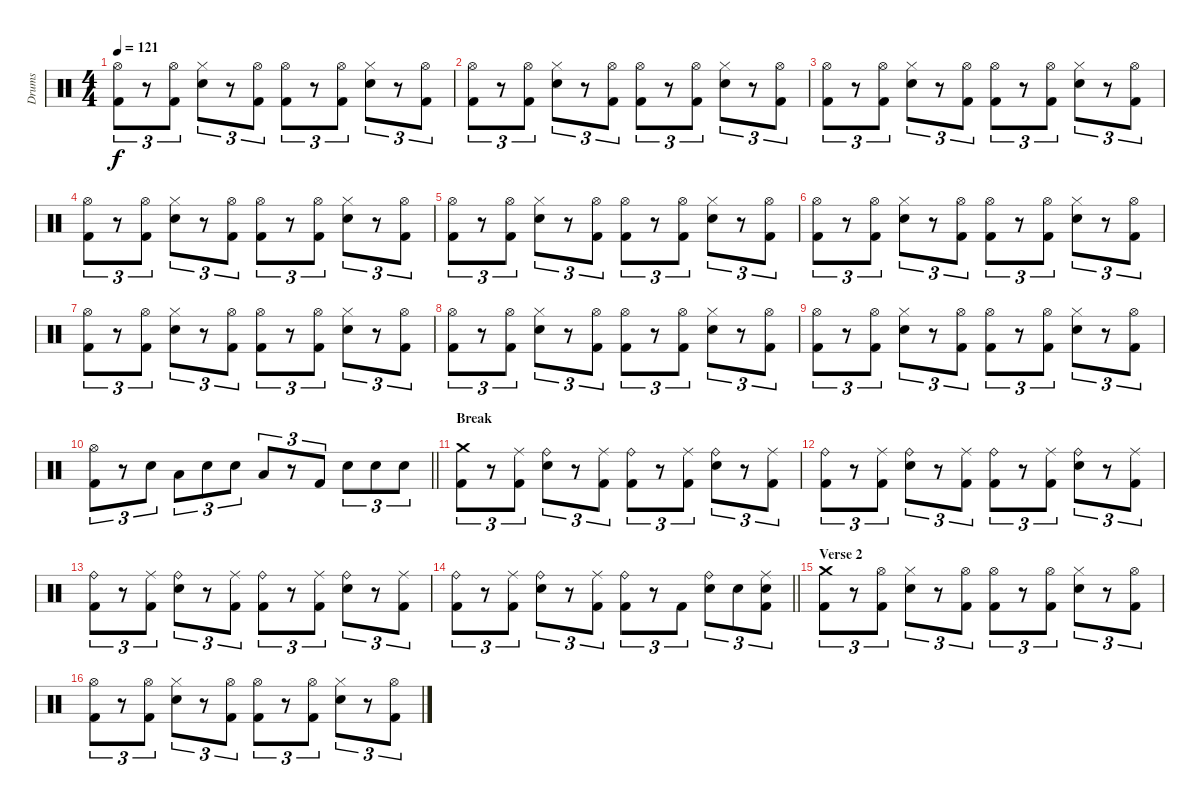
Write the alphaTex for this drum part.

\track ("Drums" "Drums") {instrument percussion}
\staff {score}
\articulation defaults
\ts (4 4)
\tempo 121
\clef neutral
\ks c
("Hi-Hat (open)" "Kick (hit) 2").8{tu (3 2) dy f} r.8{tu (3 2)} ("Hi-Hat (open)" "Kick (hit) 2").8{tu (3 2)} ("Hi-Hat (closed)" "Snare (hit) 2").8{tu (3 2)} r.8{tu (3 2)} ("Hi-Hat (open)" "Kick (hit) 2").8{tu (3 2)} ("Hi-Hat (open)" "Kick (hit) 2").8{tu (3 2)} r.8{tu (3 2)} ("Hi-Hat (open)" "Kick (hit) 2").8{tu (3 2)} ("Hi-Hat (closed)" "Snare (hit) 2").8{tu (3 2)} r.8{tu (3 2)} ("Hi-Hat (open)" "Kick (hit) 2").8{tu (3 2)} |
("Hi-Hat (open)" "Kick (hit) 2").8{tu (3 2)} r.8{tu (3 2)} ("Hi-Hat (open)" "Kick (hit) 2").8{tu (3 2)} ("Hi-Hat (closed)" "Snare (hit) 2").8{tu (3 2)} r.8{tu (3 2)} ("Hi-Hat (open)" "Kick (hit) 2").8{tu (3 2)} ("Hi-Hat (open)" "Kick (hit) 2").8{tu (3 2)} r.8{tu (3 2)} ("Hi-Hat (open)" "Kick (hit) 2").8{tu (3 2)} ("Hi-Hat (closed)" "Snare (hit) 2").8{tu (3 2)} r.8{tu (3 2)} ("Hi-Hat (open)" "Kick (hit) 2").8{tu (3 2)} |
("Hi-Hat (open)" "Kick (hit) 2").8{tu (3 2)} r.8{tu (3 2)} ("Hi-Hat (open)" "Kick (hit) 2").8{tu (3 2)} ("Hi-Hat (closed)" "Snare (hit) 2").8{tu (3 2)} r.8{tu (3 2)} ("Hi-Hat (open)" "Kick (hit) 2").8{tu (3 2)} ("Hi-Hat (open)" "Kick (hit) 2").8{tu (3 2)} r.8{tu (3 2)} ("Hi-Hat (open)" "Kick (hit) 2").8{tu (3 2)} ("Hi-Hat (closed)" "Snare (hit) 2").8{tu (3 2)} r.8{tu (3 2)} ("Hi-Hat (open)" "Kick (hit) 2").8{tu (3 2)} |
("Hi-Hat (open)" "Kick (hit) 2").8{tu (3 2)} r.8{tu (3 2)} ("Hi-Hat (open)" "Kick (hit) 2").8{tu (3 2)} ("Hi-Hat (closed)" "Snare (hit) 2").8{tu (3 2)} r.8{tu (3 2)} ("Hi-Hat (open)" "Kick (hit) 2").8{tu (3 2)} ("Hi-Hat (open)" "Kick (hit) 2").8{tu (3 2)} r.8{tu (3 2)} ("Hi-Hat (open)" "Kick (hit) 2").8{tu (3 2)} ("Hi-Hat (closed)" "Snare (hit) 2").8{tu (3 2)} r.8{tu (3 2)} ("Hi-Hat (open)" "Kick (hit) 2").8{tu (3 2)} |
("Hi-Hat (open)" "Kick (hit) 2").8{tu (3 2)} r.8{tu (3 2)} ("Hi-Hat (open)" "Kick (hit) 2").8{tu (3 2)} ("Hi-Hat (closed)" "Snare (hit) 2").8{tu (3 2)} r.8{tu (3 2)} ("Hi-Hat (open)" "Kick (hit) 2").8{tu (3 2)} ("Hi-Hat (open)" "Kick (hit) 2").8{tu (3 2)} r.8{tu (3 2)} ("Hi-Hat (open)" "Kick (hit) 2").8{tu (3 2)} ("Hi-Hat (closed)" "Snare (hit) 2").8{tu (3 2)} r.8{tu (3 2)} ("Hi-Hat (open)" "Kick (hit) 2").8{tu (3 2)} |
("Hi-Hat (open)" "Kick (hit) 2").8{tu (3 2)} r.8{tu (3 2)} ("Hi-Hat (open)" "Kick (hit) 2").8{tu (3 2)} ("Hi-Hat (closed)" "Snare (hit) 2").8{tu (3 2)} r.8{tu (3 2)} ("Hi-Hat (open)" "Kick (hit) 2").8{tu (3 2)} ("Hi-Hat (open)" "Kick (hit) 2").8{tu (3 2)} r.8{tu (3 2)} ("Hi-Hat (open)" "Kick (hit) 2").8{tu (3 2)} ("Hi-Hat (closed)" "Snare (hit) 2").8{tu (3 2)} r.8{tu (3 2)} ("Hi-Hat (open)" "Kick (hit) 2").8{tu (3 2)} |
("Hi-Hat (open)" "Kick (hit) 2").8{tu (3 2)} r.8{tu (3 2)} ("Hi-Hat (open)" "Kick (hit) 2").8{tu (3 2)} ("Hi-Hat (closed)" "Snare (hit) 2").8{tu (3 2)} r.8{tu (3 2)} ("Hi-Hat (open)" "Kick (hit) 2").8{tu (3 2)} ("Hi-Hat (open)" "Kick (hit) 2").8{tu (3 2)} r.8{tu (3 2)} ("Hi-Hat (open)" "Kick (hit) 2").8{tu (3 2)} ("Hi-Hat (closed)" "Snare (hit) 2").8{tu (3 2)} r.8{tu (3 2)} ("Hi-Hat (open)" "Kick (hit) 2").8{tu (3 2)} |
("Hi-Hat (open)" "Kick (hit) 2").8{tu (3 2)} r.8{tu (3 2)} ("Hi-Hat (open)" "Kick (hit) 2").8{tu (3 2)} ("Hi-Hat (closed)" "Snare (hit) 2").8{tu (3 2)} r.8{tu (3 2)} ("Hi-Hat (open)" "Kick (hit) 2").8{tu (3 2)} ("Hi-Hat (open)" "Kick (hit) 2").8{tu (3 2)} r.8{tu (3 2)} ("Hi-Hat (open)" "Kick (hit) 2").8{tu (3 2)} ("Hi-Hat (closed)" "Snare (hit) 2").8{tu (3 2)} r.8{tu (3 2)} ("Hi-Hat (open)" "Kick (hit) 2").8{tu (3 2)} |
("Hi-Hat (open)" "Kick (hit) 2").8{tu (3 2)} r.8{tu (3 2)} ("Hi-Hat (open)" "Kick (hit) 2").8{tu (3 2)} ("Hi-Hat (closed)" "Snare (hit) 2").8{tu (3 2)} r.8{tu (3 2)} ("Hi-Hat (open)" "Kick (hit) 2").8{tu (3 2)} ("Hi-Hat (open)" "Kick (hit) 2").8{tu (3 2)} r.8{tu (3 2)} ("Hi-Hat (open)" "Kick (hit) 2").8{tu (3 2)} ("Hi-Hat (closed)" "Snare (hit) 2").8{tu (3 2)} r.8{tu (3 2)} ("Hi-Hat (open)" "Kick (hit) 2").8{tu (3 2)} |
\barLineRight lightlight
("Hi-Hat (open)" "Kick (hit) 2").8{tu (3 2)} r.8{tu (3 2)} "Snare (hit) 2".8{tu (3 2)} "Low Tom (hit)".8{tu (3 2)} "Snare (hit) 2".8{tu (3 2)} "Snare (hit) 2".8{tu (3 2)} "Low Floor Tom (hit)".8{tu (3 2)} r.8{tu (3 2)} "Kick (hit) 2".8{tu (3 2)} "Snare (hit) 2".8{tu (3 2)} "Snare (hit) 2".8{tu (3 2)} "Snare (hit) 2".8{tu (3 2)} |
\section ("" "Break")
("Crash medium (hit)" "Kick (hit) 2").8{tu (3 2)} r.8{tu (3 2)} ("Ride (middle)" "Kick (hit) 2").8{tu (3 2)} ("Ride (bell)" "Snare (hit) 2").8{tu (3 2)} r.8{tu (3 2)} ("Ride (middle)" "Kick (hit) 2").8{tu (3 2)} ("Ride (bell)" "Kick (hit) 2").8{tu (3 2)} r.8{tu (3 2)} ("Ride (middle)" "Kick (hit) 2").8{tu (3 2)} ("Ride (bell)" "Snare (hit) 2").8{tu (3 2)} r.8{tu (3 2)} ("Ride (middle)" "Kick (hit) 2").8{tu (3 2)} |
("Ride (bell)" "Kick (hit) 2").8{tu (3 2)} r.8{tu (3 2)} ("Ride (middle)" "Kick (hit) 2").8{tu (3 2)} ("Ride (bell)" "Snare (hit) 2").8{tu (3 2)} r.8{tu (3 2)} ("Ride (middle)" "Kick (hit) 2").8{tu (3 2)} ("Ride (bell)" "Kick (hit) 2").8{tu (3 2)} r.8{tu (3 2)} ("Ride (middle)" "Kick (hit) 2").8{tu (3 2)} ("Ride (bell)" "Snare (hit) 2").8{tu (3 2)} r.8{tu (3 2)} ("Ride (middle)" "Kick (hit) 2").8{tu (3 2)} |
("Ride (bell)" "Kick (hit) 2").8{tu (3 2)} r.8{tu (3 2)} ("Ride (middle)" "Kick (hit) 2").8{tu (3 2)} ("Ride (bell)" "Snare (hit) 2").8{tu (3 2)} r.8{tu (3 2)} ("Ride (middle)" "Kick (hit) 2").8{tu (3 2)} ("Ride (bell)" "Kick (hit) 2").8{tu (3 2)} r.8{tu (3 2)} ("Ride (middle)" "Kick (hit) 2").8{tu (3 2)} ("Ride (bell)" "Snare (hit) 2").8{tu (3 2)} r.8{tu (3 2)} ("Ride (middle)" "Kick (hit) 2").8{tu (3 2)} |
\barLineRight lightlight
("Ride (bell)" "Kick (hit) 2").8{tu (3 2)} r.8{tu (3 2)} ("Ride (middle)" "Kick (hit) 2").8{tu (3 2)} ("Ride (bell)" "Snare (hit) 2").8{tu (3 2)} r.8{tu (3 2)} ("Ride (middle)" "Kick (hit) 2").8{tu (3 2)} ("Ride (bell)" "Kick (hit) 2").8{tu (3 2)} r.8{tu (3 2)} "Kick (hit) 2".8{tu (3 2)} ("Ride (bell)" "Snare (hit) 2").8{tu (3 2)} "Snare (hit) 2".8{tu (3 2)} ("Ride (middle)" "Snare (hit) 2" "Kick (hit) 2").8{tu (3 2)} |
\section ("" "Verse 2")
("Crash medium (hit)" "Kick (hit) 2").8{tu (3 2)} r.8{tu (3 2)} ("Hi-Hat (open)" "Kick (hit) 2").8{tu (3 2)} ("Hi-Hat (closed)" "Snare (hit) 2").8{tu (3 2)} r.8{tu (3 2)} ("Hi-Hat (open)" "Kick (hit) 2").8{tu (3 2)} ("Hi-Hat (open)" "Kick (hit) 2").8{tu (3 2)} r.8{tu (3 2)} ("Hi-Hat (open)" "Kick (hit) 2").8{tu (3 2)} ("Hi-Hat (closed)" "Snare (hit) 2").8{tu (3 2)} r.8{tu (3 2)} ("Hi-Hat (open)" "Kick (hit) 2").8{tu (3 2)} |
("Hi-Hat (open)" "Kick (hit) 2").8{tu (3 2)} r.8{tu (3 2)} ("Hi-Hat (open)" "Kick (hit) 2").8{tu (3 2)} ("Hi-Hat (closed)" "Snare (hit) 2").8{tu (3 2)} r.8{tu (3 2)} ("Hi-Hat (open)" "Kick (hit) 2").8{tu (3 2)} ("Hi-Hat (open)" "Kick (hit) 2").8{tu (3 2)} r.8{tu (3 2)} ("Hi-Hat (open)" "Kick (hit) 2").8{tu (3 2)} ("Hi-Hat (closed)" "Snare (hit) 2").8{tu (3 2)} r.8{tu (3 2)} ("Hi-Hat (open)" "Kick (hit) 2").8{tu (3 2)}
